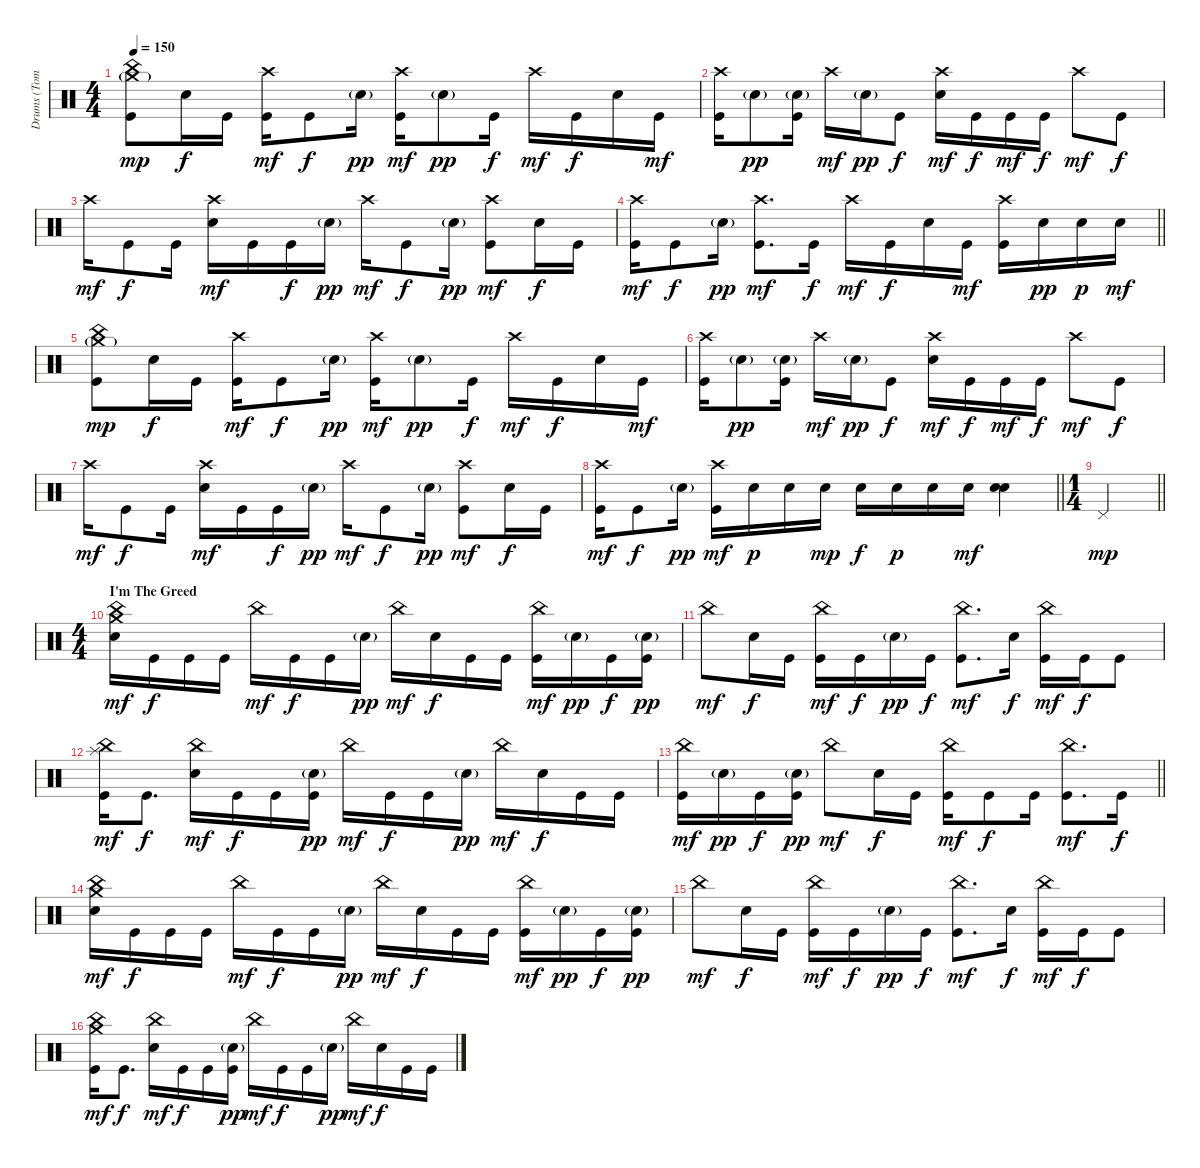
\track ("Drums (Tomas Haake)" "Drums (Tom") {instrument percussion}
\staff {score}
\articulation defaults
\ts (4 4)
\tempo 150
\clef neutral
\ks c
("China (hit)" "Crash medium (hit)"{g} "Kick (hit)").8{dy mp} "Electric Snare (hit)".16{dy f} "Kick (hit)".16 ("Crash high (hit)" "Kick (hit)").16{dy mf} "Kick (hit)".8{dy f} "Electric Snare (hit)"{g}.16{dy pp} ("Crash high (hit)" "Kick (hit)").16{dy mf} "Electric Snare (hit)"{g}.8{dy pp} "Kick (hit)".16{dy f} "Crash high (hit)".16{dy mf} "Kick (hit)".16{dy f} "Electric Snare (hit)".16 "Kick (hit)".16{dy mf} |
("Crash high (hit)" "Kick (hit)").16 "Electric Snare (hit)"{g}.8{dy pp} ("Electric Snare (hit)"{g} "Kick (hit)").16 "Crash high (hit)".16{dy mf} "Electric Snare (hit)"{g}.16{dy pp} "Kick (hit)".8{dy f} ("Crash high (hit)" "Electric Snare (hit)").16{dy mf} "Kick (hit)".16{dy f} "Kick (hit)".16{dy mf} "Kick (hit)".16{dy f} "Crash high (hit)".8{dy mf} "Kick (hit)".8{dy f} |
"Crash high (hit)".16{dy mf} "Kick (hit)".8{dy f} "Kick (hit)".16 ("Crash high (hit)" "Electric Snare (hit)").16{dy mf} "Kick (hit)".16 "Kick (hit)".16{dy f} "Electric Snare (hit)"{g}.16{dy pp} "Crash high (hit)".16{dy mf} "Kick (hit)".8{dy f} "Electric Snare (hit)"{g}.16{dy pp} ("Crash high (hit)" "Kick (hit)").8{dy mf} "Electric Snare (hit)".16{dy f} "Kick (hit)".16 |
\barLineRight lightlight
("Crash high (hit)" "Kick (hit)").16{dy mf} "Kick (hit)".8{dy f} "Electric Snare (hit)"{g}.16{dy pp} ("Crash high (hit)" "Kick (hit)").8{d dy mf} "Kick (hit)".16{dy f} "Crash high (hit)".16{dy mf} "Kick (hit)".16{dy f} "Electric Snare (hit)".16 "Kick (hit)".16{dy mf} ("Crash high (hit)" "Kick (hit)").16 "Electric Snare (hit)".16{dy pp} "Electric Snare (hit)".16{dy p} "Electric Snare (hit)".16{dy mf} |
("China (hit)" "Crash medium (hit)"{g} "Kick (hit)").8{dy mp} "Electric Snare (hit)".16{dy f} "Kick (hit)".16 ("Crash high (hit)" "Kick (hit)").16{dy mf} "Kick (hit)".8{dy f} "Electric Snare (hit)"{g}.16{dy pp} ("Crash high (hit)" "Kick (hit)").16{dy mf} "Electric Snare (hit)"{g}.8{dy pp} "Kick (hit)".16{dy f} "Crash high (hit)".16{dy mf} "Kick (hit)".16{dy f} "Electric Snare (hit)".16 "Kick (hit)".16{dy mf} |
("Crash high (hit)" "Kick (hit)").16 "Electric Snare (hit)"{g}.8{dy pp} ("Electric Snare (hit)"{g} "Kick (hit)").16 "Crash high (hit)".16{dy mf} "Electric Snare (hit)"{g}.16{dy pp} "Kick (hit)".8{dy f} ("Crash high (hit)" "Electric Snare (hit)").16{dy mf} "Kick (hit)".16{dy f} "Kick (hit)".16{dy mf} "Kick (hit)".16{dy f} "Crash high (hit)".8{dy mf} "Kick (hit)".8{dy f} |
"Crash high (hit)".16{dy mf} "Kick (hit)".8{dy f} "Kick (hit)".16 ("Crash high (hit)" "Electric Snare (hit)").16{dy mf} "Kick (hit)".16 "Kick (hit)".16{dy f} "Electric Snare (hit)"{g}.16{dy pp} "Crash high (hit)".16{dy mf} "Kick (hit)".8{dy f} "Electric Snare (hit)"{g}.16{dy pp} ("Crash high (hit)" "Kick (hit)").8{dy mf} "Electric Snare (hit)".16{dy f} "Kick (hit)".16 |
\barLineRight lightlight
("Crash high (hit)" "Kick (hit)").16{dy mf} "Kick (hit)".8{dy f} "Electric Snare (hit)"{g}.16{dy pp} ("Crash high (hit)" "Kick (hit)").16{dy mf} "Electric Snare (hit)".16{dy p} "Electric Snare (hit)".16 "Electric Snare (hit)".16{dy mp} "Electric Snare (hit)".16{dy f} "Electric Snare (hit)".16{dy p} "Electric Snare (hit)".16 "Electric Snare (hit)".16{dy mf} ("Electric Snare (hit)" "Electric Snare (hit)").4{bd 120} |
\ts (1 4)
\barLineRight lightlight "Pedal Hi-Hat (hit)".4{dy mp}
|
\ts (4 4)
\section ("" "I'm The Greed")
("China (hit)" "Crash medium (hit)" "Electric Snare (hit)").16{dy mf} "Kick (hit)".16{dy f} "Kick (hit)".16 "Kick (hit)".16 "China (hit)".16{dy mf} "Kick (hit)".16{dy f} "Kick (hit)".16 "Electric Snare (hit)"{g}.16{dy pp} "China (hit)".16{dy mf} "Electric Snare (hit)".16{dy f} "Kick (hit)".16 "Kick (hit)".16 ("China (hit)" "Kick (hit)").16{dy mf} "Electric Snare (hit)"{g}.16{dy pp} "Kick (hit)".16{dy f} ("Electric Snare (hit)"{g} "Kick (hit)").16{dy pp} |
"China (hit)".8{dy mf} "Electric Snare (hit)".16{dy f} "Kick (hit)".16 ("China (hit)" "Kick (hit)").16{dy mf} "Kick (hit)".16{dy f} "Electric Snare (hit)"{g}.16{dy pp} "Kick (hit)".16{dy f} ("China (hit)" "Kick (hit)").8{d dy mf} "Electric Snare (hit)".16{dy f} ("China (hit)" "Kick (hit)").16{dy mf} "Kick (hit)".16{dy f} "Kick (hit)".8 |
("China (hit)" "Splash (hit)" "Kick (hit)").16{dy mf} "Kick (hit)".8{d dy f} ("China (hit)" "Electric Snare (hit)").16{dy mf} "Kick (hit)".16{dy f} "Kick (hit)".16 ("Electric Snare (hit)"{g} "Kick (hit)").16{dy pp} "China (hit)".16{dy mf} "Kick (hit)".16{dy f} "Kick (hit)".16 "Electric Snare (hit)"{g}.16{dy pp} "China (hit)".16{dy mf} "Electric Snare (hit)".16{dy f} "Kick (hit)".16 "Kick (hit)".16 |
\barLineRight lightlight
("China (hit)" "Kick (hit)").16{dy mf} "Electric Snare (hit)"{g}.16{dy pp} "Kick (hit)".16{dy f} ("Electric Snare (hit)"{g} "Kick (hit)").16{dy pp} "China (hit)".8{dy mf} "Electric Snare (hit)".16{dy f} "Kick (hit)".16 ("China (hit)" "Kick (hit)").16{dy mf} "Kick (hit)".8{dy f} "Kick (hit)".16 ("China (hit)" "Kick (hit)").8{d dy mf} "Kick (hit)".16{dy f} |
("China (hit)" "Crash medium (hit)" "Electric Snare (hit)").16{dy mf} "Kick (hit)".16{dy f} "Kick (hit)".16 "Kick (hit)".16 "China (hit)".16{dy mf} "Kick (hit)".16{dy f} "Kick (hit)".16 "Electric Snare (hit)"{g}.16{dy pp} "China (hit)".16{dy mf} "Electric Snare (hit)".16{dy f} "Kick (hit)".16 "Kick (hit)".16 ("China (hit)" "Kick (hit)").16{dy mf} "Electric Snare (hit)"{g}.16{dy pp} "Kick (hit)".16{dy f} ("Electric Snare (hit)"{g} "Kick (hit)").16{dy pp} |
"China (hit)".8{dy mf} "Electric Snare (hit)".16{dy f} "Kick (hit)".16 ("China (hit)" "Kick (hit)").16{dy mf} "Kick (hit)".16{dy f} "Electric Snare (hit)"{g}.16{dy pp} "Kick (hit)".16{dy f} ("China (hit)" "Kick (hit)").8{d dy mf} "Electric Snare (hit)".16{dy f} ("China (hit)" "Kick (hit)").16{dy mf} "Kick (hit)".16{dy f} "Kick (hit)".8 |
("China (hit)" "Crash medium (hit)" "Kick (hit)").16{dy mf} "Kick (hit)".8{d dy f} ("China (hit)" "Electric Snare (hit)").16{dy mf} "Kick (hit)".16{dy f} "Kick (hit)".16 ("Electric Snare (hit)"{g} "Kick (hit)").16{dy pp} "China (hit)".16{dy mf} "Kick (hit)".16{dy f} "Kick (hit)".16 "Electric Snare (hit)"{g}.16{dy pp} "China (hit)".16{dy mf} "Electric Snare (hit)".16{dy f} "Kick (hit)".16 "Kick (hit)".16
